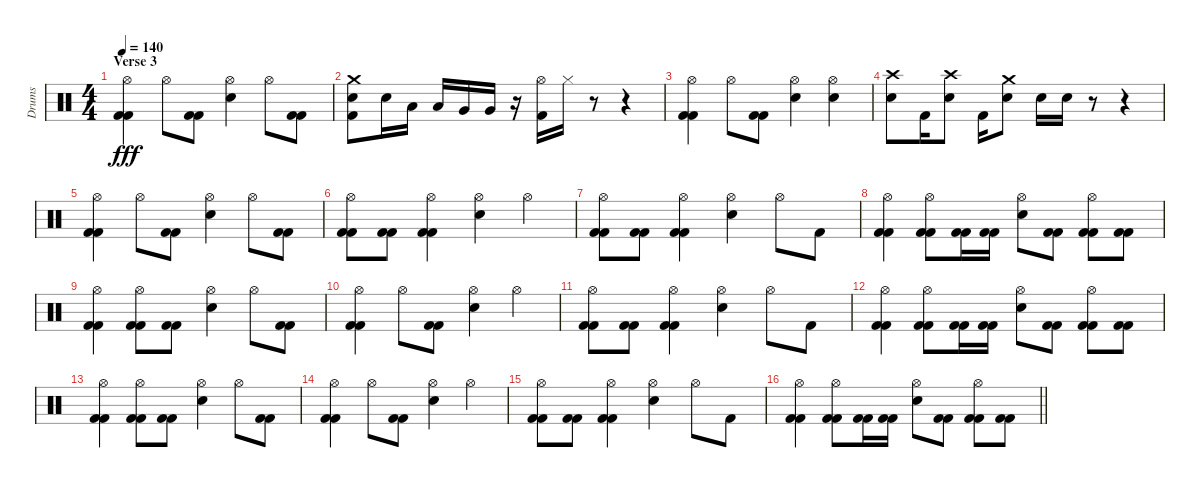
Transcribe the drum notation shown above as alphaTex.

\track ("Drums" "Drums") {instrument percussion}
\staff {score}
\articulation defaults
\ts (4 4)
\section ("" "Verse 3")
\tempo 140
\clef neutral
\ks c
("Kick (hit) 2" "Kick (hit) 2" "Hi-Hat (open)").4{dy fff} "Hi-Hat (open)".8 ("Kick (hit) 2" "Kick (hit) 2").8 ("Snare (hit) 2" "Hi-Hat (open)").4 "Hi-Hat (open)".8 ("Kick (hit) 2" "Kick (hit) 2").8 |
("Crash medium (hit)" "Snare (hit) 2" "Kick (hit) 2").8 "Snare (hit) 2".16 "Low Tom (hit)".16 "Low Tom (hit)".16 "Very Low Tom (hit)".16 "Very Low Tom (hit)".16 r.16 ("Hi-Hat (open)" "Kick (hit) 2").16 "Hi-Hat (closed)".16 r.8 r.4 |
("Kick (hit) 2" "Kick (hit) 2" "Hi-Hat (open)").4 "Hi-Hat (open)".8 ("Kick (hit) 2" "Kick (hit) 2").8 ("Snare (hit) 2" "Hi-Hat (open)").4 ("Snare (hit) 2" "Hi-Hat (open)").4 |
("Crash high (hit)" "Snare (hit) 2").8 "Kick (hit) 2".16 ("Crash high (hit)" "Snare (hit) 2").8 "Kick (hit) 2".16 ("Crash medium (hit)" "Snare (hit) 2").8 "Snare (hit) 2".16 "Snare (hit) 2".16 r.8 r.4 |
("Kick (hit) 2" "Kick (hit) 2" "Hi-Hat (open)").4 "Hi-Hat (open)".8 ("Kick (hit) 2" "Kick (hit) 2").8 ("Snare (hit) 2" "Hi-Hat (open)").4 "Hi-Hat (open)".8 ("Kick (hit) 2" "Kick (hit) 2").8 |
("Kick (hit) 2" "Kick (hit) 2" "Hi-Hat (open)").8 ("Kick (hit) 2" "Kick (hit) 2").8 ("Kick (hit) 2" "Kick (hit) 2" "Hi-Hat (open)").4 ("Snare (hit) 2" "Hi-Hat (open)").4 "Hi-Hat (open)".4 |
("Kick (hit) 2" "Kick (hit) 2" "Hi-Hat (open)").8 ("Kick (hit) 2" "Kick (hit) 2").8 ("Kick (hit) 2" "Kick (hit) 2" "Hi-Hat (open)").4 ("Snare (hit) 2" "Hi-Hat (open)").4 "Hi-Hat (open)".8 "Kick (hit) 2".8 |
("Kick (hit) 2" "Kick (hit) 2" "Hi-Hat (open)").4 ("Kick (hit) 2" "Kick (hit) 2" "Hi-Hat (open)").8 ("Kick (hit) 2" "Kick (hit) 2").16 ("Kick (hit) 2" "Kick (hit) 2").16 ("Snare (hit) 2" "Hi-Hat (open)").8 ("Kick (hit) 2" "Kick (hit) 2").8 ("Kick (hit) 2" "Kick (hit) 2" "Hi-Hat (open)").8 ("Kick (hit) 2" "Kick (hit) 2").8 |
("Kick (hit) 2" "Kick (hit) 2" "Hi-Hat (open)").4 ("Kick (hit) 2" "Kick (hit) 2" "Hi-Hat (open)").8 ("Kick (hit) 2" "Kick (hit) 2").8 ("Snare (hit) 2" "Hi-Hat (open)").4 "Hi-Hat (open)".8 ("Kick (hit) 2" "Kick (hit) 2").8 |
("Kick (hit) 2" "Kick (hit) 2" "Hi-Hat (open)").4 "Hi-Hat (open)".8 ("Kick (hit) 2" "Kick (hit) 2").8 ("Snare (hit) 2" "Hi-Hat (open)").4 "Hi-Hat (open)".4 |
("Kick (hit) 2" "Kick (hit) 2" "Hi-Hat (open)").8 ("Kick (hit) 2" "Kick (hit) 2").8 ("Kick (hit) 2" "Kick (hit) 2" "Hi-Hat (open)").4 ("Snare (hit) 2" "Hi-Hat (open)").4 "Hi-Hat (open)".8 "Kick (hit) 2".8 |
("Kick (hit) 2" "Kick (hit) 2" "Hi-Hat (open)").4 ("Kick (hit) 2" "Kick (hit) 2" "Hi-Hat (open)").8 ("Kick (hit) 2" "Kick (hit) 2").16 ("Kick (hit) 2" "Kick (hit) 2").16 ("Snare (hit) 2" "Hi-Hat (open)").8 ("Kick (hit) 2" "Kick (hit) 2").8 ("Kick (hit) 2" "Kick (hit) 2" "Hi-Hat (open)").8 ("Kick (hit) 2" "Kick (hit) 2").8 |
("Kick (hit) 2" "Kick (hit) 2" "Hi-Hat (open)").4 ("Kick (hit) 2" "Kick (hit) 2" "Hi-Hat (open)").8 ("Kick (hit) 2" "Kick (hit) 2").8 ("Snare (hit) 2" "Hi-Hat (open)").4 "Hi-Hat (open)".8 ("Kick (hit) 2" "Kick (hit) 2").8 |
("Kick (hit) 2" "Kick (hit) 2" "Hi-Hat (open)").4 "Hi-Hat (open)".8 ("Kick (hit) 2" "Kick (hit) 2").8 ("Snare (hit) 2" "Hi-Hat (open)").4 "Hi-Hat (open)".4 |
("Kick (hit) 2" "Kick (hit) 2" "Hi-Hat (open)").8 ("Kick (hit) 2" "Kick (hit) 2").8 ("Kick (hit) 2" "Kick (hit) 2" "Hi-Hat (open)").4 ("Snare (hit) 2" "Hi-Hat (open)").4 "Hi-Hat (open)".8 "Kick (hit) 2".8 |
\barLineRight lightlight
("Kick (hit) 2" "Kick (hit) 2" "Hi-Hat (open)").4 ("Kick (hit) 2" "Kick (hit) 2" "Hi-Hat (open)").8 ("Kick (hit) 2" "Kick (hit) 2").16 ("Kick (hit) 2" "Kick (hit) 2").16 ("Snare (hit) 2" "Hi-Hat (open)").8 ("Kick (hit) 2" "Kick (hit) 2").8 ("Kick (hit) 2" "Kick (hit) 2" "Hi-Hat (open)").8 ("Kick (hit) 2" "Kick (hit) 2").8
